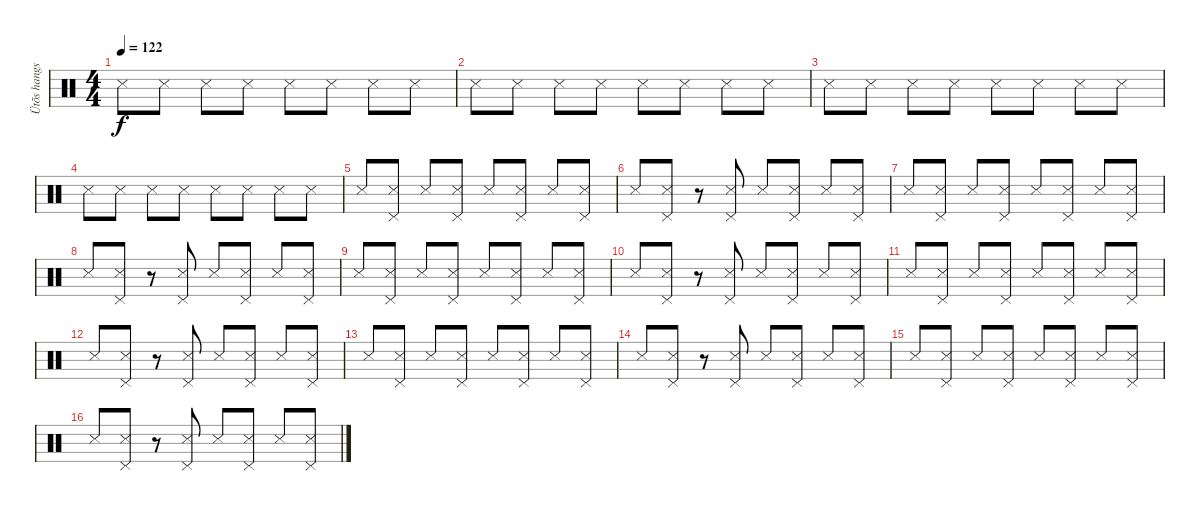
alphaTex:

\track ("Ütõs hangszer" "Ütõs hangs") {instrument percussion}
\staff {score}
\articulation defaults
\ts (4 4)
\tempo 122
\clef neutral
\ks c "Snare (side stick) 3".8{dy f} "Snare (side stick) 3".8 "Snare (side stick) 3".8 "Snare (side stick) 3".8 "Snare (side stick) 3".8 "Snare (side stick) 3".8 "Snare (side stick) 3".8 "Snare (side stick) 3".8
|
"Snare (side stick) 3".8 "Snare (side stick) 3".8 "Snare (side stick) 3".8 "Snare (side stick) 3".8 "Snare (side stick) 3".8 "Snare (side stick) 3".8 "Snare (side stick) 3".8 "Snare (side stick) 3".8 |
"Snare (side stick) 3".8 "Snare (side stick) 3".8 "Snare (side stick) 3".8 "Snare (side stick) 3".8 "Snare (side stick) 3".8 "Snare (side stick) 3".8 "Snare (side stick) 3".8 "Snare (side stick) 3".8 |
"Snare (side stick) 3".8 "Snare (side stick) 3".8 "Snare (side stick) 3".8 "Snare (side stick) 3".8 "Snare (side stick) 3".8 "Snare (side stick) 3".8 "Snare (side stick) 3".8 "Snare (side stick) 3".8 |
"Snare (side stick) 3".8 ("Snare (side stick) 3" "Pedal Hi-Hat (hit)").8 "Snare (side stick) 3".8 ("Snare (side stick) 3" "Pedal Hi-Hat (hit)").8 "Snare (side stick) 3".8 ("Snare (side stick) 3" "Pedal Hi-Hat (hit)").8 "Snare (side stick) 3".8 ("Snare (side stick) 3" "Pedal Hi-Hat (hit)").8 |
"Snare (side stick) 3".8 ("Snare (side stick) 3" "Pedal Hi-Hat (hit)").8 r.8 ("Snare (side stick) 3" "Pedal Hi-Hat (hit)").8 "Snare (side stick) 3".8 ("Snare (side stick) 3" "Pedal Hi-Hat (hit)").8 "Snare (side stick) 3".8 ("Snare (side stick) 3" "Pedal Hi-Hat (hit)").8 |
"Snare (side stick) 3".8 ("Snare (side stick) 3" "Pedal Hi-Hat (hit)").8 "Snare (side stick) 3".8 ("Snare (side stick) 3" "Pedal Hi-Hat (hit)").8 "Snare (side stick) 3".8 ("Snare (side stick) 3" "Pedal Hi-Hat (hit)").8 "Snare (side stick) 3".8 ("Snare (side stick) 3" "Pedal Hi-Hat (hit)").8 |
"Snare (side stick) 3".8 ("Snare (side stick) 3" "Pedal Hi-Hat (hit)").8 r.8 ("Snare (side stick) 3" "Pedal Hi-Hat (hit)").8 "Snare (side stick) 3".8 ("Snare (side stick) 3" "Pedal Hi-Hat (hit)").8 "Snare (side stick) 3".8 ("Snare (side stick) 3" "Pedal Hi-Hat (hit)").8 |
"Snare (side stick) 3".8 ("Snare (side stick) 3" "Pedal Hi-Hat (hit)").8 "Snare (side stick) 3".8 ("Snare (side stick) 3" "Pedal Hi-Hat (hit)").8 "Snare (side stick) 3".8 ("Snare (side stick) 3" "Pedal Hi-Hat (hit)").8 "Snare (side stick) 3".8 ("Snare (side stick) 3" "Pedal Hi-Hat (hit)").8 |
"Snare (side stick) 3".8 ("Snare (side stick) 3" "Pedal Hi-Hat (hit)").8 r.8 ("Snare (side stick) 3" "Pedal Hi-Hat (hit)").8 "Snare (side stick) 3".8 ("Snare (side stick) 3" "Pedal Hi-Hat (hit)").8 "Snare (side stick) 3".8 ("Snare (side stick) 3" "Pedal Hi-Hat (hit)").8 |
"Snare (side stick) 3".8 ("Snare (side stick) 3" "Pedal Hi-Hat (hit)").8 "Snare (side stick) 3".8 ("Snare (side stick) 3" "Pedal Hi-Hat (hit)").8 "Snare (side stick) 3".8 ("Snare (side stick) 3" "Pedal Hi-Hat (hit)").8 "Snare (side stick) 3".8 ("Snare (side stick) 3" "Pedal Hi-Hat (hit)").8 |
"Snare (side stick) 3".8 ("Snare (side stick) 3" "Pedal Hi-Hat (hit)").8 r.8 ("Snare (side stick) 3" "Pedal Hi-Hat (hit)").8 "Snare (side stick) 3".8 ("Snare (side stick) 3" "Pedal Hi-Hat (hit)").8 "Snare (side stick) 3".8 ("Snare (side stick) 3" "Pedal Hi-Hat (hit)").8 |
"Snare (side stick) 3".8 ("Snare (side stick) 3" "Pedal Hi-Hat (hit)").8 "Snare (side stick) 3".8 ("Snare (side stick) 3" "Pedal Hi-Hat (hit)").8 "Snare (side stick) 3".8 ("Snare (side stick) 3" "Pedal Hi-Hat (hit)").8 "Snare (side stick) 3".8 ("Snare (side stick) 3" "Pedal Hi-Hat (hit)").8 |
"Snare (side stick) 3".8 ("Snare (side stick) 3" "Pedal Hi-Hat (hit)").8 r.8 ("Snare (side stick) 3" "Pedal Hi-Hat (hit)").8 "Snare (side stick) 3".8 ("Snare (side stick) 3" "Pedal Hi-Hat (hit)").8 "Snare (side stick) 3".8 ("Snare (side stick) 3" "Pedal Hi-Hat (hit)").8 |
"Snare (side stick) 3".8 ("Snare (side stick) 3" "Pedal Hi-Hat (hit)").8 "Snare (side stick) 3".8 ("Snare (side stick) 3" "Pedal Hi-Hat (hit)").8 "Snare (side stick) 3".8 ("Snare (side stick) 3" "Pedal Hi-Hat (hit)").8 "Snare (side stick) 3".8 ("Snare (side stick) 3" "Pedal Hi-Hat (hit)").8 |
"Snare (side stick) 3".8 ("Snare (side stick) 3" "Pedal Hi-Hat (hit)").8 r.8 ("Snare (side stick) 3" "Pedal Hi-Hat (hit)").8 "Snare (side stick) 3".8 ("Snare (side stick) 3" "Pedal Hi-Hat (hit)").8 "Snare (side stick) 3".8 ("Snare (side stick) 3" "Pedal Hi-Hat (hit)").8
